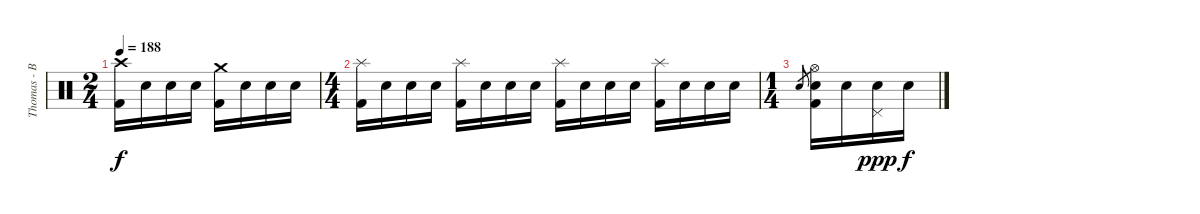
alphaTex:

\track ("Thomas - Batterie" "Thomas - B") {instrument percussion}
\staff {score}
\articulation defaults
\ts (2 4)
\tempo 188
\clef neutral
\ks c
("Crash high (hit)" "Kick (hit) 2").16{dy f} "Snare (hit)".16 "Snare (hit)".16 "Snare (hit)".16 ("Crash medium (hit)" "Kick (hit) 2").16 "Snare (hit)".16 "Snare (hit)".16 "Snare (hit)".16 |
\ts (4 4)
("Splash (hit)" "Kick (hit) 2").16 "Snare (hit)".16 "Electric Snare (hit)".16 "Snare (hit)".16 ("Splash (hit)" "Kick (hit) 2").16 "Snare (hit)".16 "Electric Snare (hit)".16 "Snare (hit)".16 ("Splash (hit)" "Kick (hit) 2").16 "Snare (hit)".16 "Electric Snare (hit)".16 "Snare (hit)".16 ("Splash (hit)" "Kick (hit) 2").16 "Snare (hit)".16 "Electric Snare (hit)".16 "Snare (hit)".16 |
\ts (1 4)
"Electric Snare (hit)".8{gr} ("Hi-Hat (open)" "Electric Snare (hit)" "Kick (hit) 2").16 "Snare (hit)".16 ("Pedal Hi-Hat (hit)" "Snare (hit)").16{dy ppp} "Snare (hit)".16{dy f}
